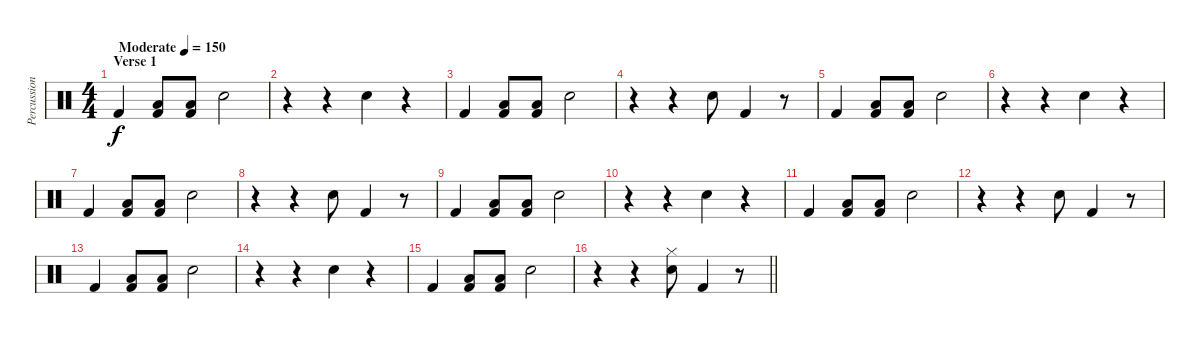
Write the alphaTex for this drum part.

\track ("Percussion" "Percussion") {instrument percussion}
\staff {score}
\articulation defaults
\ts (4 4)
\section ("" "Verse 1")
\tempo (150 "Moderate")
\clef neutral
\ks c "Kick (hit) 2".4{dy f}
("Low Floor Tom (hit)" "Kick (hit) 2").8 ("Low Floor Tom (hit)" "Kick (hit) 2").8 "Snare (hit) 2".2 |
r.4 r.4 "Snare (hit) 2".4 r.4 |
"Kick (hit) 2".4 ("Low Floor Tom (hit)" "Kick (hit) 2").8 ("Low Floor Tom (hit)" "Kick (hit) 2").8 "Snare (hit) 2".2 |
r.4 r.4 "Snare (hit) 2".8 "Kick (hit) 2".4 r.8 |
"Kick (hit) 2".4 ("Low Floor Tom (hit)" "Kick (hit) 2").8 ("Low Floor Tom (hit)" "Kick (hit) 2").8 "Snare (hit) 2".2 |
r.4 r.4 "Snare (hit) 2".4 r.4 |
"Kick (hit) 2".4 ("Low Floor Tom (hit)" "Kick (hit) 2").8 ("Low Floor Tom (hit)" "Kick (hit) 2").8 "Snare (hit) 2".2 |
r.4 r.4 "Snare (hit) 2".8 "Kick (hit) 2".4 r.8 |
"Kick (hit) 2".4 ("Low Floor Tom (hit)" "Kick (hit) 2").8 ("Low Floor Tom (hit)" "Kick (hit) 2").8 "Snare (hit) 2".2 |
r.4 r.4 "Snare (hit) 2".4 r.4 |
"Kick (hit) 2".4 ("Low Floor Tom (hit)" "Kick (hit) 2").8 ("Low Floor Tom (hit)" "Kick (hit) 2").8 "Snare (hit) 2".2 |
r.4 r.4 "Snare (hit) 2".8 "Kick (hit) 2".4 r.8 |
"Kick (hit) 2".4 ("Low Floor Tom (hit)" "Kick (hit) 2").8 ("Low Floor Tom (hit)" "Kick (hit) 2").8 "Snare (hit) 2".2 |
r.4 r.4 "Snare (hit) 2".4 r.4 |
"Kick (hit) 2".4 ("Low Floor Tom (hit)" "Kick (hit) 2").8 ("Low Floor Tom (hit)" "Kick (hit) 2").8 "Snare (hit) 2".2 |
\barLineRight lightlight
r.4 r.4 ("Hi-Hat (closed)" "Snare (hit) 2").8 "Kick (hit) 2".4 r.8
